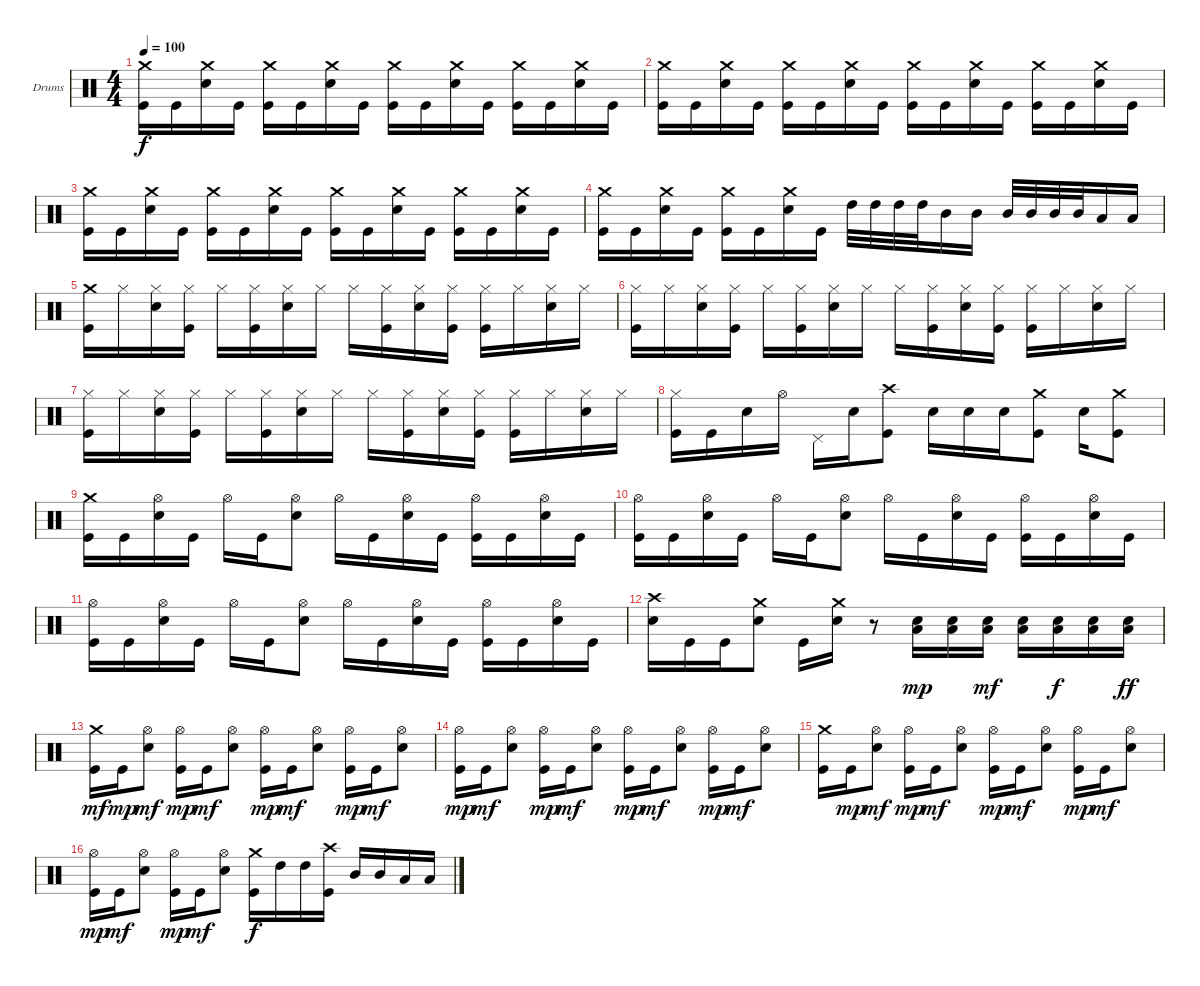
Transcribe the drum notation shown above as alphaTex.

\bracketExtendMode groupsimilarinstruments
\firstSystemTrackNameOrientation horizontal
\otherSystemsTrackNameOrientation horizontal
\track ("Drumkit" "Drums") {instrument percussion}
\staff {score}
\articulation defaults
\ts (4 4)
\tempo 100
\clef neutral
\ks c
("Crash medium (hit)" "Kick (hit)").16{dy f} "Kick (hit)".16 ("Crash medium (hit)" "Snare (hit) 2").16 "Kick (hit)".16 ("Crash medium (hit)" "Kick (hit)").16 "Kick (hit)".16 ("Crash medium (hit)" "Snare (hit) 2").16 "Kick (hit)".16 ("Crash medium (hit)" "Kick (hit)").16 "Kick (hit)".16 ("Crash medium (hit)" "Snare (hit) 2").16 "Kick (hit)".16 ("Crash medium (hit)" "Kick (hit)").16 "Kick (hit)".16 ("Crash medium (hit)" "Snare (hit) 2").16 "Kick (hit)".16 |
("Crash medium (hit)" "Kick (hit)").16 "Kick (hit)".16 ("Crash medium (hit)" "Snare (hit) 2").16 "Kick (hit)".16 ("Crash medium (hit)" "Kick (hit)").16 "Kick (hit)".16 ("Crash medium (hit)" "Snare (hit) 2").16 "Kick (hit)".16 ("Crash medium (hit)" "Kick (hit)").16 "Kick (hit)".16 ("Crash medium (hit)" "Snare (hit) 2").16 "Kick (hit)".16 ("Crash medium (hit)" "Kick (hit)").16 "Kick (hit)".16 ("Crash medium (hit)" "Snare (hit) 2").16 "Kick (hit)".16 |
("Crash medium (hit)" "Kick (hit)").16 "Kick (hit)".16 ("Crash medium (hit)" "Snare (hit) 2").16 "Kick (hit)".16 ("Crash medium (hit)" "Kick (hit)").16 "Kick (hit)".16 ("Crash medium (hit)" "Snare (hit) 2").16 "Kick (hit)".16 ("Crash medium (hit)" "Kick (hit)").16 "Kick (hit)".16 ("Crash medium (hit)" "Snare (hit) 2").16 "Kick (hit)".16 ("Crash medium (hit)" "Kick (hit)").16 "Kick (hit)".16 ("Crash medium (hit)" "Snare (hit) 2").16 "Kick (hit)".16 |
("Crash medium (hit)" "Kick (hit)").16 "Kick (hit)".16 ("Crash medium (hit)" "Snare (hit) 2").16 "Kick (hit)".16 ("Crash medium (hit)" "Kick (hit)").16 "Kick (hit)".16 ("Crash medium (hit)" "Snare (hit) 2").16 "Kick (hit)".16 "High Tom (hit)".32 "High Tom (hit)".32 "High Tom (hit)".32 "High Tom (hit)".32 "Mid Tom (hit)".16 "Mid Tom (hit)".16 "Mid Tom (hit)".32 "Mid Tom (hit)".32 "Mid Tom (hit)".32 "Mid Tom (hit)".32 "Low Tom (hit)".16 "Low Tom (hit)".16 |
("Crash medium (hit)" "Kick (hit)").16 "Hi-Hat (closed)".16 ("Hi-Hat (closed)" "Snare (hit) 2").16 ("Hi-Hat (closed)" "Kick (hit)").16 "Hi-Hat (closed)".16 ("Hi-Hat (closed)" "Kick (hit)").16 ("Hi-Hat (closed)" "Snare (hit) 2").16 "Hi-Hat (closed)".16 "Hi-Hat (closed)".16 ("Hi-Hat (closed)" "Kick (hit)").16 ("Hi-Hat (closed)" "Snare (hit) 2").16 ("Hi-Hat (closed)" "Kick (hit)").16 ("Hi-Hat (closed)" "Kick (hit)").16 "Hi-Hat (closed)".16 ("Hi-Hat (closed)" "Snare (hit) 2").16 "Hi-Hat (closed)".16 |
("Hi-Hat (closed)" "Kick (hit)").16 "Hi-Hat (closed)".16 ("Hi-Hat (closed)" "Snare (hit) 2").16 ("Hi-Hat (closed)" "Kick (hit)").16 "Hi-Hat (closed)".16 ("Hi-Hat (closed)" "Kick (hit)").16 ("Hi-Hat (closed)" "Snare (hit) 2").16 "Hi-Hat (closed)".16 "Hi-Hat (closed)".16 ("Hi-Hat (closed)" "Kick (hit)").16 ("Hi-Hat (closed)" "Snare (hit) 2").16 ("Hi-Hat (closed)" "Kick (hit)").16 ("Hi-Hat (closed)" "Kick (hit)").16 "Hi-Hat (closed)".16 ("Hi-Hat (closed)" "Snare (hit) 2").16 "Hi-Hat (closed)".16 |
("Hi-Hat (closed)" "Kick (hit)").16 "Hi-Hat (closed)".16 ("Hi-Hat (closed)" "Snare (hit) 2").16 ("Hi-Hat (closed)" "Kick (hit)").16 "Hi-Hat (closed)".16 ("Hi-Hat (closed)" "Kick (hit)").16 ("Hi-Hat (closed)" "Snare (hit) 2").16 "Hi-Hat (closed)".16 "Hi-Hat (closed)".16 ("Hi-Hat (closed)" "Kick (hit)").16 ("Hi-Hat (closed)" "Snare (hit) 2").16 ("Hi-Hat (closed)" "Kick (hit)").16 ("Hi-Hat (closed)" "Kick (hit)").16 "Hi-Hat (closed)".16 ("Hi-Hat (closed)" "Snare (hit) 2").16 "Hi-Hat (closed)".16 |
("Hi-Hat (closed)" "Kick (hit)").16 "Kick (hit)".16 "Snare (hit) 2".16 "Hi-Hat (open)".16 "Pedal Hi-Hat (hit)".16 "Snare (hit) 2".16 ("Crash high (hit)" "Kick (hit)").8 "Snare (hit) 2".16 "Snare (hit) 2".16 "Snare (hit) 2".16 ("Crash medium (hit)" "Kick (hit)").8 "Snare (hit) 2".16 ("Crash medium (hit)" "Kick (hit)").8 |
("Crash medium (hit)" "Kick (hit)").16 "Kick (hit)".16 ("Hi-Hat (open)" "Snare (hit) 2").16 "Kick (hit)".16 "Hi-Hat (open)".16 "Kick (hit)".16 ("Hi-Hat (open)" "Snare (hit) 2").8 "Hi-Hat (open)".16 "Kick (hit)".16 ("Hi-Hat (open)" "Snare (hit) 2").16 "Kick (hit)".16 ("Hi-Hat (open)" "Kick (hit)").16 "Kick (hit)".16 ("Hi-Hat (open)" "Snare (hit) 2").16 "Kick (hit)".16 |
("Hi-Hat (open)" "Kick (hit)").16 "Kick (hit)".16 ("Hi-Hat (open)" "Snare (hit) 2").16 "Kick (hit)".16 "Hi-Hat (open)".16 "Kick (hit)".16 ("Hi-Hat (open)" "Snare (hit) 2").8 "Hi-Hat (open)".16 "Kick (hit)".16 ("Hi-Hat (open)" "Snare (hit) 2").16 "Kick (hit)".16 ("Hi-Hat (open)" "Kick (hit)").16 "Kick (hit)".16 ("Hi-Hat (open)" "Snare (hit) 2").16 "Kick (hit)".16 |
("Hi-Hat (open)" "Kick (hit)").16 "Kick (hit)".16 ("Hi-Hat (open)" "Snare (hit) 2").16 "Kick (hit)".16 "Hi-Hat (open)".16 "Kick (hit)".16 ("Hi-Hat (open)" "Snare (hit) 2").8 "Hi-Hat (open)".16 "Kick (hit)".16 ("Hi-Hat (open)" "Snare (hit) 2").16 "Kick (hit)".16 ("Hi-Hat (open)" "Kick (hit)").16 "Kick (hit)".16 ("Hi-Hat (open)" "Snare (hit) 2").16 "Kick (hit)".16 |
("Crash high (hit)" "Snare (hit) 2").16 "Kick (hit)".16 "Kick (hit)".16 ("Crash medium (hit)" "Snare (hit) 2").8 "Kick (hit)".16 ("Crash medium (hit)" "Snare (hit) 2").16 r.8 ("Low Tom (hit)" "Snare (hit) 2").16{dy mp} ("Low Tom (hit)" "Snare (hit) 2").16 ("Low Tom (hit)" "Snare (hit) 2").16{dy mf} ("Low Tom (hit)" "Snare (hit) 2").16 ("Low Tom (hit)" "Snare (hit) 2").16{dy f} ("Low Tom (hit)" "Snare (hit) 2").16 ("Low Tom (hit)" "Snare (hit) 2").16{dy ff} |
("Crash medium (hit)" "Kick (hit)").16{dy mf} "Kick (hit)".16{dy mp} ("Hi-Hat (open)" "Snare (hit) 2").8{dy mf} ("Kick (hit)" "Hi-Hat (open)").16{dy mp} "Kick (hit)".16{dy mf} ("Hi-Hat (open)" "Snare (hit) 2").8 ("Kick (hit)" "Hi-Hat (open)").16{dy mp} "Kick (hit)".16{dy mf} ("Hi-Hat (open)" "Snare (hit) 2").8 ("Kick (hit)" "Hi-Hat (open)").16{dy mp} "Kick (hit)".16{dy mf} ("Hi-Hat (open)" "Snare (hit) 2").8 |
("Kick (hit)" "Hi-Hat (open)").16{dy mp} "Kick (hit)".16{dy mf} ("Hi-Hat (open)" "Snare (hit) 2").8 ("Kick (hit)" "Hi-Hat (open)").16{dy mp} "Kick (hit)".16{dy mf} ("Hi-Hat (open)" "Snare (hit) 2").8 ("Kick (hit)" "Hi-Hat (open)").16{dy mp} "Kick (hit)".16{dy mf} ("Hi-Hat (open)" "Snare (hit) 2").8 ("Kick (hit)" "Hi-Hat (open)").16{dy mp} "Kick (hit)".16{dy mf} ("Hi-Hat (open)" "Snare (hit) 2").8 |
("Crash medium (hit)" "Kick (hit)").16 "Kick (hit)".16{dy mp} ("Hi-Hat (open)" "Snare (hit) 2").8{dy mf} ("Kick (hit)" "Hi-Hat (open)").16{dy mp} "Kick (hit)".16{dy mf} ("Hi-Hat (open)" "Snare (hit) 2").8 ("Kick (hit)" "Hi-Hat (open)").16{dy mp} "Kick (hit)".16{dy mf} ("Hi-Hat (open)" "Snare (hit) 2").8 ("Kick (hit)" "Hi-Hat (open)").16{dy mp} "Kick (hit)".16{dy mf} ("Hi-Hat (open)" "Snare (hit) 2").8 |
("Kick (hit)" "Hi-Hat (open)").16{dy mp} "Kick (hit)".16{dy mf} ("Hi-Hat (open)" "Snare (hit) 2").8 ("Kick (hit)" "Hi-Hat (open)").16{dy mp} "Kick (hit)".16{dy mf} ("Hi-Hat (open)" "Snare (hit) 2").8 ("Crash medium (hit)" "Kick (hit)").16{dy f} "High Tom (hit)".16 "High Tom (hit)".16 ("Crash high (hit)" "Kick (hit)").16 "Mid Tom (hit)".16 "Mid Tom (hit)".16 "Low Tom (hit)".16 "Low Tom (hit)".16
